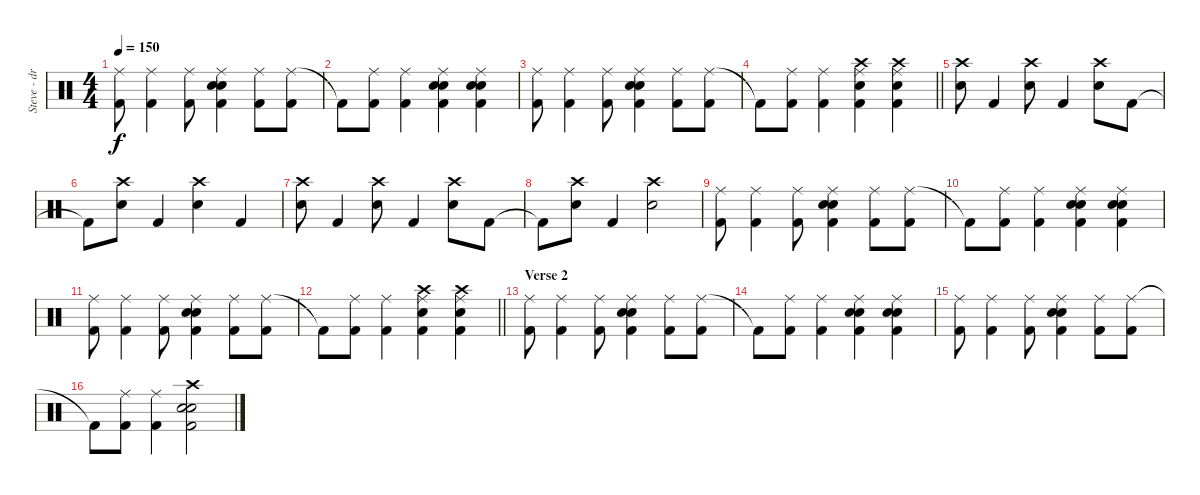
\track ("Steve - drums" "Steve - dr") {instrument percussion}
\staff {score}
\articulation defaults
\ts (4 4)
\tempo 150
\clef neutral
\ks c
("Ride (middle)" "Kick (hit) 2").8{dy f} ("Ride (middle)" "Kick (hit) 2").4 ("Ride (middle)" "Kick (hit) 2").8 ("Electric Snare (hit)" "Ride (middle)" "Kick (hit) 2" "Snare (hit) 2").4 ("Ride (middle)" "Kick (hit) 2").8 ("Ride (middle)" "Kick (hit) 2").8 |
"Kick (hit) 2"{t}.8 ("Ride (middle)" "Kick (hit) 2").8 ("Ride (middle)" "Kick (hit) 2").4 ("Electric Snare (hit)" "Ride (middle)" "Kick (hit) 2" "Snare (hit) 2").4 ("Electric Snare (hit)" "Ride (middle)" "Kick (hit) 2" "Snare (hit) 2").4 |
("Ride (middle)" "Kick (hit) 2").8 ("Ride (middle)" "Kick (hit) 2").4 ("Ride (middle)" "Kick (hit) 2").8 ("Electric Snare (hit)" "Ride (middle)" "Kick (hit) 2" "Snare (hit) 2").4 ("Ride (middle)" "Kick (hit) 2").8 ("Ride (middle)" "Kick (hit) 2").8 |
\barLineRight lightlight "Kick (hit) 2"{t}.8
("Ride (middle)" "Kick (hit) 2").8 ("Ride (middle)" "Kick (hit) 2").4 ("Crash high (hit)" "Ride (middle)" "Kick (hit) 2" "Snare (hit) 2").4 ("Crash high (hit)" "Ride (middle)" "Kick (hit) 2" "Snare (hit) 2").4 |
("Crash high (hit)" "Snare (hit) 2").8 "Kick (hit) 2".4 ("Crash high (hit)" "Snare (hit) 2").8 "Kick (hit) 2".4 ("Crash high (hit)" "Snare (hit) 2").8 "Kick (hit) 2".8 |
"Kick (hit) 2"{t}.8 ("Crash high (hit)" "Snare (hit) 2").8 "Kick (hit) 2".4 ("Crash high (hit)" "Snare (hit) 2").4 "Kick (hit) 2".4 |
("Crash high (hit)" "Snare (hit) 2").8 "Kick (hit) 2".4 ("Crash high (hit)" "Snare (hit) 2").8 "Kick (hit) 2".4 ("Crash high (hit)" "Snare (hit) 2").8 "Kick (hit) 2".8 |
"Kick (hit) 2"{t}.8 ("Crash high (hit)" "Snare (hit) 2").8 "Kick (hit) 2".4 ("Crash high (hit)" "Snare (hit) 2").2 |
("Ride (middle)" "Kick (hit) 2").8 ("Ride (middle)" "Kick (hit) 2").4 ("Ride (middle)" "Kick (hit) 2").8 ("Electric Snare (hit)" "Ride (middle)" "Kick (hit) 2" "Snare (hit) 2").4 ("Ride (middle)" "Kick (hit) 2").8 ("Ride (middle)" "Kick (hit) 2").8 |
"Kick (hit) 2"{t}.8 ("Ride (middle)" "Kick (hit) 2").8 ("Ride (middle)" "Kick (hit) 2").4 ("Electric Snare (hit)" "Ride (middle)" "Kick (hit) 2" "Snare (hit) 2").4 ("Electric Snare (hit)" "Ride (middle)" "Kick (hit) 2" "Snare (hit) 2").4 |
("Ride (middle)" "Kick (hit) 2").8 ("Ride (middle)" "Kick (hit) 2").4 ("Ride (middle)" "Kick (hit) 2").8 ("Electric Snare (hit)" "Ride (middle)" "Kick (hit) 2" "Snare (hit) 2").4 ("Ride (middle)" "Kick (hit) 2").8 ("Ride (middle)" "Kick (hit) 2").8 |
\barLineRight lightlight "Kick (hit) 2"{t}.8
("Ride (middle)" "Kick (hit) 2").8 ("Ride (middle)" "Kick (hit) 2").4 ("Crash high (hit)" "Ride (middle)" "Kick (hit) 2" "Snare (hit) 2").4 ("Crash high (hit)" "Ride (middle)" "Kick (hit) 2" "Snare (hit) 2").4 |
\section ("" "Verse 2")
("Ride (middle)" "Kick (hit) 2").8 ("Ride (middle)" "Kick (hit) 2").4 ("Ride (middle)" "Kick (hit) 2").8 ("Electric Snare (hit)" "Ride (middle)" "Kick (hit) 2" "Snare (hit) 2").4 ("Ride (middle)" "Kick (hit) 2").8 ("Ride (middle)" "Kick (hit) 2").8 |
"Kick (hit) 2"{t}.8 ("Ride (middle)" "Kick (hit) 2").8 ("Ride (middle)" "Kick (hit) 2").4 ("Electric Snare (hit)" "Ride (middle)" "Kick (hit) 2" "Snare (hit) 2").4 ("Electric Snare (hit)" "Ride (middle)" "Kick (hit) 2" "Snare (hit) 2").4 |
("Ride (middle)" "Kick (hit) 2").8 ("Ride (middle)" "Kick (hit) 2").4 ("Ride (middle)" "Kick (hit) 2").8 ("Electric Snare (hit)" "Ride (middle)" "Kick (hit) 2" "Snare (hit) 2").4 ("Ride (middle)" "Kick (hit) 2").8 ("Ride (middle)" "Kick (hit) 2").8 |
"Kick (hit) 2"{t}.8 ("Ride (middle)" "Kick (hit) 2").8 ("Ride (middle)" "Kick (hit) 2").4 ("Electric Snare (hit)" "Crash high (hit)" "Kick (hit) 2" "Snare (hit) 2").2
